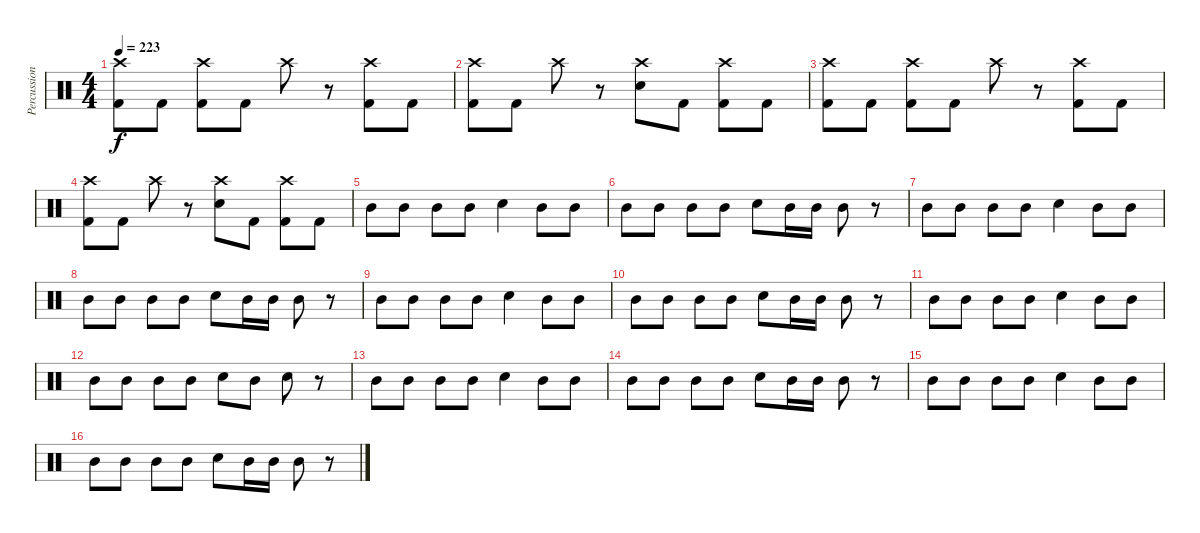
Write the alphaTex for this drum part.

\track ("Percussion" "Percussion") {instrument percussion}
\staff {score}
\articulation defaults
\ts (4 4)
\tempo 223
\clef neutral
\ks c
("Crash high (hit)" "Kick (hit) 2").8{dy f} "Kick (hit) 2".8 ("Crash high (hit)" "Kick (hit) 2").8 "Kick (hit) 2".8 "Crash high (hit)".8 r.8 ("Crash high (hit)" "Kick (hit) 2").8 "Kick (hit) 2".8 |
("Crash high (hit)" "Kick (hit) 2").8 "Kick (hit) 2".8 "Crash high (hit)".8 r.8 ("Crash high (hit)" "Electric Snare (hit)").8 "Kick (hit) 2".8 ("Crash high (hit)" "Kick (hit) 2").8 "Kick (hit) 2".8 |
("Crash high (hit)" "Kick (hit) 2").8 "Kick (hit) 2".8 ("Crash high (hit)" "Kick (hit) 2").8 "Kick (hit) 2".8 "Crash high (hit)".8 r.8 ("Crash high (hit)" "Kick (hit) 2").8 "Kick (hit) 2".8 |
("Crash high (hit)" "Kick (hit) 2").8 "Kick (hit) 2".8 "Crash high (hit)".8 r.8 ("Crash high (hit)" "Electric Snare (hit)").8 "Kick (hit) 2".8 ("Crash high (hit)" "Kick (hit) 2").8 "Kick (hit) 2".8 |
"Mid Tom (hit)".8 "Mid Tom (hit)".8 "Mid Tom (hit)".8 "Mid Tom (hit)".8 "Electric Snare (hit)".4 "Mid Tom (hit)".8 "Mid Tom (hit)".8 |
"Mid Tom (hit)".8 "Mid Tom (hit)".8 "Mid Tom (hit)".8 "Mid Tom (hit)".8 "Electric Snare (hit)".8 "Mid Tom (hit)".16 "Mid Tom (hit)".16 "Mid Tom (hit)".8 r.8 |
"Mid Tom (hit)".8 "Mid Tom (hit)".8 "Mid Tom (hit)".8 "Mid Tom (hit)".8 "Electric Snare (hit)".4 "Mid Tom (hit)".8 "Mid Tom (hit)".8 |
"Mid Tom (hit)".8 "Mid Tom (hit)".8 "Mid Tom (hit)".8 "Mid Tom (hit)".8 "Electric Snare (hit)".8 "Mid Tom (hit)".16 "Mid Tom (hit)".16 "Mid Tom (hit)".8 r.8 |
"Mid Tom (hit)".8 "Mid Tom (hit)".8 "Mid Tom (hit)".8 "Mid Tom (hit)".8 "Electric Snare (hit)".4 "Mid Tom (hit)".8 "Mid Tom (hit)".8 |
"Mid Tom (hit)".8 "Mid Tom (hit)".8 "Mid Tom (hit)".8 "Mid Tom (hit)".8 "Electric Snare (hit)".8 "Mid Tom (hit)".16 "Mid Tom (hit)".16 "Mid Tom (hit)".8 r.8 |
"Mid Tom (hit)".8 "Mid Tom (hit)".8 "Mid Tom (hit)".8 "Mid Tom (hit)".8 "Electric Snare (hit)".4 "Mid Tom (hit)".8 "Mid Tom (hit)".8 |
"Mid Tom (hit)".8 "Mid Tom (hit)".8 "Mid Tom (hit)".8 "Mid Tom (hit)".8 "Electric Snare (hit)".8 "Mid Tom (hit)".8 "Electric Snare (hit)".8 r.8 |
"Mid Tom (hit)".8 "Mid Tom (hit)".8 "Mid Tom (hit)".8 "Mid Tom (hit)".8 "Electric Snare (hit)".4 "Mid Tom (hit)".8 "Mid Tom (hit)".8 |
"Mid Tom (hit)".8 "Mid Tom (hit)".8 "Mid Tom (hit)".8 "Mid Tom (hit)".8 "Electric Snare (hit)".8 "Mid Tom (hit)".16 "Mid Tom (hit)".16 "Mid Tom (hit)".8 r.8 |
"Mid Tom (hit)".8 "Mid Tom (hit)".8 "Mid Tom (hit)".8 "Mid Tom (hit)".8 "Electric Snare (hit)".4 "Mid Tom (hit)".8 "Mid Tom (hit)".8 |
"Mid Tom (hit)".8 "Mid Tom (hit)".8 "Mid Tom (hit)".8 "Mid Tom (hit)".8 "Electric Snare (hit)".8 "Mid Tom (hit)".16 "Mid Tom (hit)".16 "Mid Tom (hit)".8 r.8
